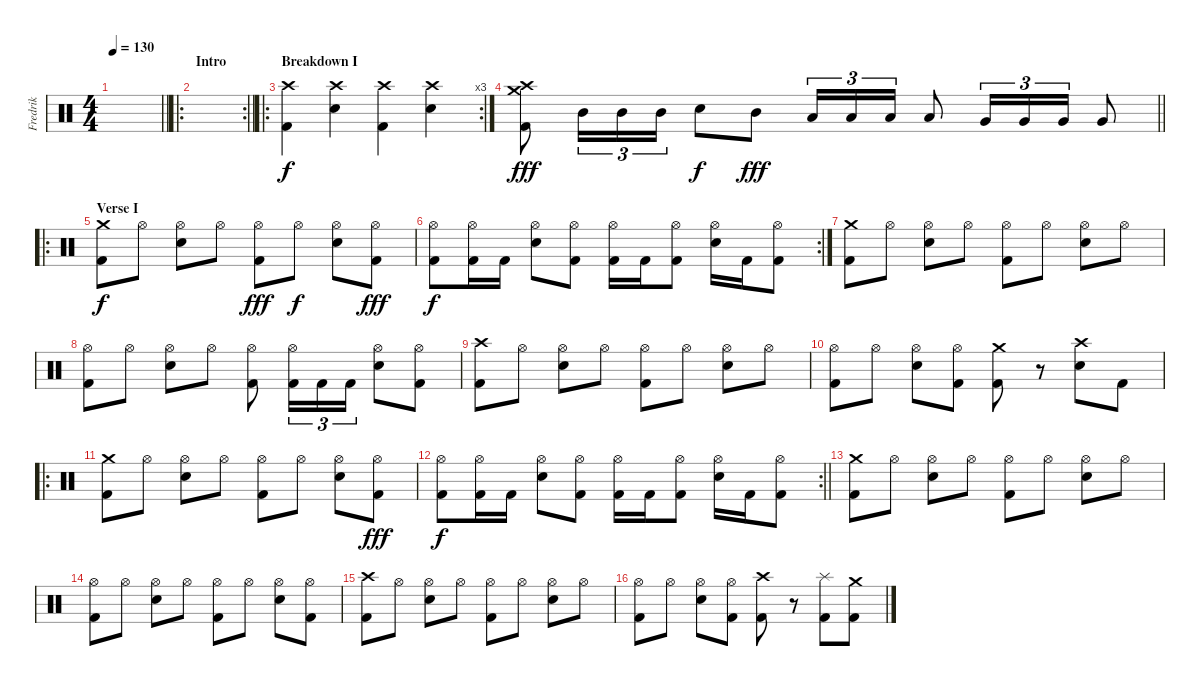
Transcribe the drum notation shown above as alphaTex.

\track ("Fredrik" "Fredrik") {instrument percussion}
\staff {score}
\articulation defaults
\ts (4 4)
\tempo 130
\clef neutral
\barLineRight lightlight
\ks c
|
\ro
\rc 2
\section ("" "Intro")
\barLineRight lightlight
|
\ro
\rc 3
\section ("" "Breakdown I")
("Crash high (hit)" "Kick (hit) 2").4 ("Crash high (hit)" "Electric Snare (hit)").4 ("Crash high (hit)" "Kick (hit) 2").4 ("Crash high (hit)" "Electric Snare (hit)").4 |
\barLineRight lightlight
("Crash medium (hit)" "Crash high (hit)" "Kick (hit) 2").8{dy fff} "Mid Tom (hit)".16{tu (3 2)} "Mid Tom (hit)".16{tu (3 2)} "Mid Tom (hit)".16{tu (3 2)} "Electric Snare (hit)".8{dy f} "Mid Tom (hit)".8{dy fff} "Low Tom (hit)".16{tu (3 2)} "Low Tom (hit)".16{tu (3 2)} "Low Tom (hit)".16{tu (3 2)} "Low Tom (hit)".8 "Very Low Tom (hit)".16{tu (3 2)} "Very Low Tom (hit)".16{tu (3 2)} "Very Low Tom (hit)".16{tu (3 2)} "Very Low Tom (hit)".8 |
\ro
\section ("" "Verse I")
("Crash medium (hit)" "Kick (hit) 2").8{dy f} "Hi-Hat (open)".8 ("Hi-Hat (open)" "Electric Snare (hit)").8 "Hi-Hat (open)".8 ("Hi-Hat (open)" "Kick (hit) 2").8{dy fff} "Hi-Hat (open)".8{dy f} ("Hi-Hat (open)" "Electric Snare (hit)").8 ("Hi-Hat (open)" "Kick (hit) 2").8{dy fff} |
\rc 2
("Hi-Hat (open)" "Kick (hit) 2").8{dy f} ("Hi-Hat (open)" "Kick (hit) 2").16 "Kick (hit) 2".16 ("Hi-Hat (open)" "Electric Snare (hit)").8 ("Hi-Hat (open)" "Kick (hit) 2").8 ("Hi-Hat (open)" "Kick (hit) 2").16 "Kick (hit) 2".16 ("Hi-Hat (open)" "Kick (hit) 2").8 ("Hi-Hat (open)" "Electric Snare (hit)").16 "Kick (hit) 2".16 ("Hi-Hat (open)" "Kick (hit) 2").8 |
("Crash medium (hit)" "Kick (hit) 2").8 "Hi-Hat (open)".8 ("Hi-Hat (open)" "Electric Snare (hit)").8 "Hi-Hat (open)".8 ("Hi-Hat (open)" "Kick (hit) 2").8 "Hi-Hat (open)".8 ("Hi-Hat (open)" "Electric Snare (hit)").8 "Hi-Hat (open)".8 |
("Hi-Hat (open)" "Kick (hit) 2").8 "Hi-Hat (open)".8 ("Hi-Hat (open)" "Electric Snare (hit)").8 "Hi-Hat (open)".8 ("Hi-Hat (open)" "Kick (hit) 2").8 ("Hi-Hat (open)" "Kick (hit) 2").16{tu (3 2)} "Kick (hit) 2".16{tu (3 2)} "Kick (hit) 2".16{tu (3 2)} ("Hi-Hat (open)" "Electric Snare (hit)").8 ("Hi-Hat (open)" "Kick (hit) 2").8 |
("Crash high (hit)" "Kick (hit) 2").8 "Hi-Hat (open)".8 ("Hi-Hat (open)" "Electric Snare (hit)").8 "Hi-Hat (open)".8 ("Hi-Hat (open)" "Kick (hit) 2").8 "Hi-Hat (open)".8 ("Hi-Hat (open)" "Electric Snare (hit)").8 "Hi-Hat (open)".8 |
("Hi-Hat (open)" "Kick (hit) 2").8 "Hi-Hat (open)".8 ("Hi-Hat (open)" "Electric Snare (hit)").8 ("Hi-Hat (open)" "Kick (hit) 2").8 ("Crash medium (hit)" "Kick (hit) 2").8 r.8 ("Crash high (hit)" "Electric Snare (hit)").8 "Kick (hit) 2".8 |
\ro
("Crash medium (hit)" "Kick (hit) 2").8 "Hi-Hat (open)".8 ("Hi-Hat (open)" "Electric Snare (hit)").8 "Hi-Hat (open)".8 ("Hi-Hat (open)" "Kick (hit) 2").8 "Hi-Hat (open)".8 ("Hi-Hat (open)" "Electric Snare (hit)").8 ("Hi-Hat (open)" "Kick (hit) 2").8{dy fff} |
\rc 2
\barLineRight lightlight
("Hi-Hat (open)" "Kick (hit) 2").8{dy f} ("Hi-Hat (open)" "Kick (hit) 2").16 "Kick (hit) 2".16 ("Hi-Hat (open)" "Electric Snare (hit)").8 ("Hi-Hat (open)" "Kick (hit) 2").8 ("Hi-Hat (open)" "Kick (hit) 2").16 "Kick (hit) 2".16 ("Hi-Hat (open)" "Kick (hit) 2").8 ("Hi-Hat (open)" "Electric Snare (hit)").16 "Kick (hit) 2".16 ("Hi-Hat (open)" "Kick (hit) 2").8 |
("Crash medium (hit)" "Kick (hit) 2").8 "Hi-Hat (open)".8 ("Hi-Hat (open)" "Electric Snare (hit)").8 "Hi-Hat (open)".8 ("Hi-Hat (open)" "Kick (hit) 2").8 "Hi-Hat (open)".8 ("Hi-Hat (open)" "Electric Snare (hit)").8 "Hi-Hat (open)".8 |
("Hi-Hat (open)" "Kick (hit) 2").8 "Hi-Hat (open)".8 ("Hi-Hat (open)" "Electric Snare (hit)").8 "Hi-Hat (open)".8 ("Hi-Hat (open)" "Kick (hit) 2").8 "Hi-Hat (open)".8 ("Hi-Hat (open)" "Electric Snare (hit)").8 ("Hi-Hat (open)" "Kick (hit) 2").8 |
("Crash high (hit)" "Kick (hit) 2").8 "Hi-Hat (open)".8 ("Hi-Hat (open)" "Electric Snare (hit)").8 "Hi-Hat (open)".8 ("Hi-Hat (open)" "Kick (hit) 2").8 "Hi-Hat (open)".8 ("Hi-Hat (open)" "Electric Snare (hit)").8 "Hi-Hat (open)".8 |
("Hi-Hat (open)" "Kick (hit) 2").8 "Hi-Hat (open)".8 ("Hi-Hat (open)" "Electric Snare (hit)").8 ("Hi-Hat (open)" "Kick (hit) 2").8 ("Crash high (hit)" "Kick (hit) 2").8 r.8 ("Splash (hit)" "Kick (hit) 2").8 ("Crash medium (hit)" "Kick (hit) 2").8
